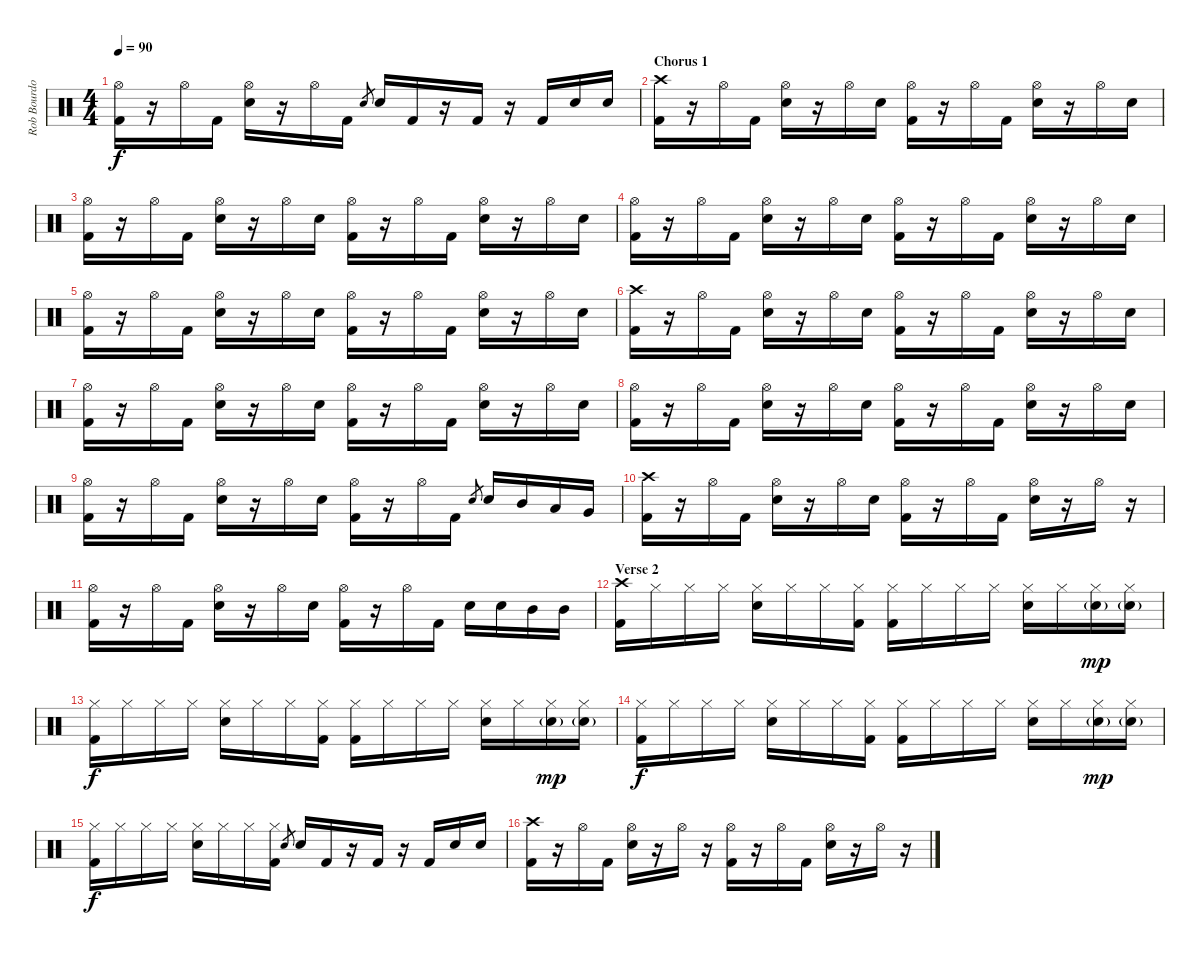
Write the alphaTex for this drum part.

\track ("Rob Bourdon (Drums)" "Rob Bourdo") {instrument percussion}
\staff {score}
\articulation defaults
\ts (4 4)
\tempo 90
\clef neutral
\ks c
("Hi-Hat (open)" "Kick (hit) 2").16{dy f} r.16 "Hi-Hat (open)".16 "Kick (hit) 2".16 ("Hi-Hat (open)" "Electric Snare (hit)").16 r.16 "Hi-Hat (open)".16 "Kick (hit) 2".16 "Electric Snare (hit)".8{gr} "Electric Snare (hit)".16 "Kick (hit) 2".16 r.16 "Kick (hit) 2".16 r.16 "Kick (hit) 2".16 "Electric Snare (hit)".16 "Electric Snare (hit)".16 |
\section ("" "Chorus 1")
("Crash high (hit)" "Kick (hit) 2").16 r.16 "Hi-Hat (open)".16 "Kick (hit) 2".16 ("Hi-Hat (open)" "Electric Snare (hit)").16 r.16 "Hi-Hat (open)".16 "Electric Snare (hit)".16 ("Hi-Hat (open)" "Kick (hit) 2").16 r.16 "Hi-Hat (open)".16 "Kick (hit) 2".16 ("Hi-Hat (open)" "Electric Snare (hit)").16 r.16 "Hi-Hat (open)".16 "Electric Snare (hit)".16 |
("Hi-Hat (open)" "Kick (hit) 2").16 r.16 "Hi-Hat (open)".16 "Kick (hit) 2".16 ("Hi-Hat (open)" "Electric Snare (hit)").16 r.16 "Hi-Hat (open)".16 "Electric Snare (hit)".16 ("Hi-Hat (open)" "Kick (hit) 2").16 r.16 "Hi-Hat (open)".16 "Kick (hit) 2".16 ("Hi-Hat (open)" "Electric Snare (hit)").16 r.16 "Hi-Hat (open)".16 "Electric Snare (hit)".16 |
("Hi-Hat (open)" "Kick (hit) 2").16 r.16 "Hi-Hat (open)".16 "Kick (hit) 2".16 ("Hi-Hat (open)" "Electric Snare (hit)").16 r.16 "Hi-Hat (open)".16 "Electric Snare (hit)".16 ("Hi-Hat (open)" "Kick (hit) 2").16 r.16 "Hi-Hat (open)".16 "Kick (hit) 2".16 ("Hi-Hat (open)" "Electric Snare (hit)").16 r.16 "Hi-Hat (open)".16 "Electric Snare (hit)".16 |
("Hi-Hat (open)" "Kick (hit) 2").16 r.16 "Hi-Hat (open)".16 "Kick (hit) 2".16 ("Hi-Hat (open)" "Electric Snare (hit)").16 r.16 "Hi-Hat (open)".16 "Electric Snare (hit)".16 ("Hi-Hat (open)" "Kick (hit) 2").16 r.16 "Hi-Hat (open)".16 "Kick (hit) 2".16 ("Hi-Hat (open)" "Electric Snare (hit)").16 r.16 "Hi-Hat (open)".16 "Electric Snare (hit)".16 |
("Crash high (hit)" "Kick (hit) 2").16 r.16 "Hi-Hat (open)".16 "Kick (hit) 2".16 ("Hi-Hat (open)" "Electric Snare (hit)").16 r.16 "Hi-Hat (open)".16 "Electric Snare (hit)".16 ("Hi-Hat (open)" "Kick (hit) 2").16 r.16 "Hi-Hat (open)".16 "Kick (hit) 2".16 ("Hi-Hat (open)" "Electric Snare (hit)").16 r.16 "Hi-Hat (open)".16 "Electric Snare (hit)".16 |
("Hi-Hat (open)" "Kick (hit) 2").16 r.16 "Hi-Hat (open)".16 "Kick (hit) 2".16 ("Hi-Hat (open)" "Electric Snare (hit)").16 r.16 "Hi-Hat (open)".16 "Electric Snare (hit)".16 ("Hi-Hat (open)" "Kick (hit) 2").16 r.16 "Hi-Hat (open)".16 "Kick (hit) 2".16 ("Hi-Hat (open)" "Electric Snare (hit)").16 r.16 "Hi-Hat (open)".16 "Electric Snare (hit)".16 |
("Hi-Hat (open)" "Kick (hit) 2").16 r.16 "Hi-Hat (open)".16 "Kick (hit) 2".16 ("Hi-Hat (open)" "Electric Snare (hit)").16 r.16 "Hi-Hat (open)".16 "Electric Snare (hit)".16 ("Hi-Hat (open)" "Kick (hit) 2").16 r.16 "Hi-Hat (open)".16 "Kick (hit) 2".16 ("Hi-Hat (open)" "Electric Snare (hit)").16 r.16 "Hi-Hat (open)".16 "Electric Snare (hit)".16 |
("Hi-Hat (open)" "Kick (hit) 2").16 r.16 "Hi-Hat (open)".16 "Kick (hit) 2".16 ("Hi-Hat (open)" "Electric Snare (hit)").16 r.16 "Hi-Hat (open)".16 "Electric Snare (hit)".16 ("Hi-Hat (open)" "Kick (hit) 2").16 r.16 "Hi-Hat (open)".16 "Kick (hit) 2".16 "Electric Snare (hit)".8{gr} "Electric Snare (hit)".16 "Mid Tom (hit)".16 "Low Tom (hit)".16 "Very Low Tom (hit)".16 |
("Crash high (hit)" "Kick (hit) 2").16 r.16 "Hi-Hat (open)".16 "Kick (hit) 2".16 ("Hi-Hat (open)" "Electric Snare (hit)").16 r.16 "Hi-Hat (open)".16 "Electric Snare (hit)".16 ("Hi-Hat (open)" "Kick (hit) 2").16 r.16 "Hi-Hat (open)".16 "Kick (hit) 2".16 ("Hi-Hat (open)" "Electric Snare (hit)").16 r.16 "Hi-Hat (open)".16 r.16 |
("Hi-Hat (open)" "Kick (hit) 2").16 r.16 "Hi-Hat (open)".16 "Kick (hit) 2".16 ("Hi-Hat (open)" "Electric Snare (hit)").16 r.16 "Hi-Hat (open)".16 "Electric Snare (hit)".16 ("Hi-Hat (open)" "Kick (hit) 2").16 r.16 "Hi-Hat (open)".16 "Kick (hit) 2".16 "Electric Snare (hit)".16 "Electric Snare (hit)".16 "Mid Tom (hit)".16 "Mid Tom (hit)".16 |
\section ("" "Verse 2")
("Crash high (hit)" "Kick (hit) 2").16 "Hi-Hat (closed)".16 "Hi-Hat (closed)".16 "Hi-Hat (closed)".16 ("Hi-Hat (closed)" "Hand Clap (hit)").16 "Hi-Hat (closed)".16 "Hi-Hat (closed)".16 ("Hi-Hat (closed)" "Kick (hit) 2").16 ("Hi-Hat (closed)" "Kick (hit) 2").16 "Hi-Hat (closed)".16 "Hi-Hat (closed)".16 "Hi-Hat (closed)".16 ("Hi-Hat (closed)" "Hand Clap (hit)").16 "Hi-Hat (closed)".16 ("Hi-Hat (closed)" "Hand Clap (hit)"{g}).16{dy mp} ("Hi-Hat (closed)" "Hand Clap (hit)"{g}).16 |
("Hi-Hat (closed)" "Kick (hit) 2").16{dy f} "Hi-Hat (closed)".16 "Hi-Hat (closed)".16 "Hi-Hat (closed)".16 ("Hi-Hat (closed)" "Hand Clap (hit)").16 "Hi-Hat (closed)".16 "Hi-Hat (closed)".16 ("Hi-Hat (closed)" "Kick (hit) 2").16 ("Hi-Hat (closed)" "Kick (hit) 2").16 "Hi-Hat (closed)".16 "Hi-Hat (closed)".16 "Hi-Hat (closed)".16 ("Hi-Hat (closed)" "Hand Clap (hit)").16 "Hi-Hat (closed)".16 ("Hi-Hat (closed)" "Hand Clap (hit)"{g}).16{dy mp} ("Hi-Hat (closed)" "Hand Clap (hit)"{g}).16 |
("Hi-Hat (closed)" "Kick (hit) 2").16{dy f} "Hi-Hat (closed)".16 "Hi-Hat (closed)".16 "Hi-Hat (closed)".16 ("Hi-Hat (closed)" "Hand Clap (hit)").16 "Hi-Hat (closed)".16 "Hi-Hat (closed)".16 ("Hi-Hat (closed)" "Kick (hit) 2").16 ("Hi-Hat (closed)" "Kick (hit) 2").16 "Hi-Hat (closed)".16 "Hi-Hat (closed)".16 "Hi-Hat (closed)".16 ("Hi-Hat (closed)" "Hand Clap (hit)").16 "Hi-Hat (closed)".16 ("Hi-Hat (closed)" "Hand Clap (hit)"{g}).16{dy mp} ("Hi-Hat (closed)" "Hand Clap (hit)"{g}).16 |
("Hi-Hat (closed)" "Kick (hit) 2").16{dy f} "Hi-Hat (closed)".16 "Hi-Hat (closed)".16 "Hi-Hat (closed)".16 ("Hi-Hat (closed)" "Hand Clap (hit)").16 "Hi-Hat (closed)".16 "Hi-Hat (closed)".16 ("Hi-Hat (closed)" "Kick (hit) 2").16 "Electric Snare (hit)".8{gr} "Electric Snare (hit)".16 "Kick (hit) 2".16 r.16 "Kick (hit) 2".16 r.16 "Kick (hit) 2".16 "Electric Snare (hit)".16 "Electric Snare (hit)".16 |
("Crash high (hit)" "Kick (hit) 2").16 r.16 "Hi-Hat (open)".16 "Kick (hit) 2".16 ("Hi-Hat (open)" "Electric Snare (hit)").16 r.16 "Hi-Hat (open)".16 r.16 ("Hi-Hat (open)" "Kick (hit) 2").16 r.16 "Hi-Hat (open)".16 "Kick (hit) 2".16 ("Hi-Hat (open)" "Electric Snare (hit)").16 r.16 "Hi-Hat (open)".16 r.16
